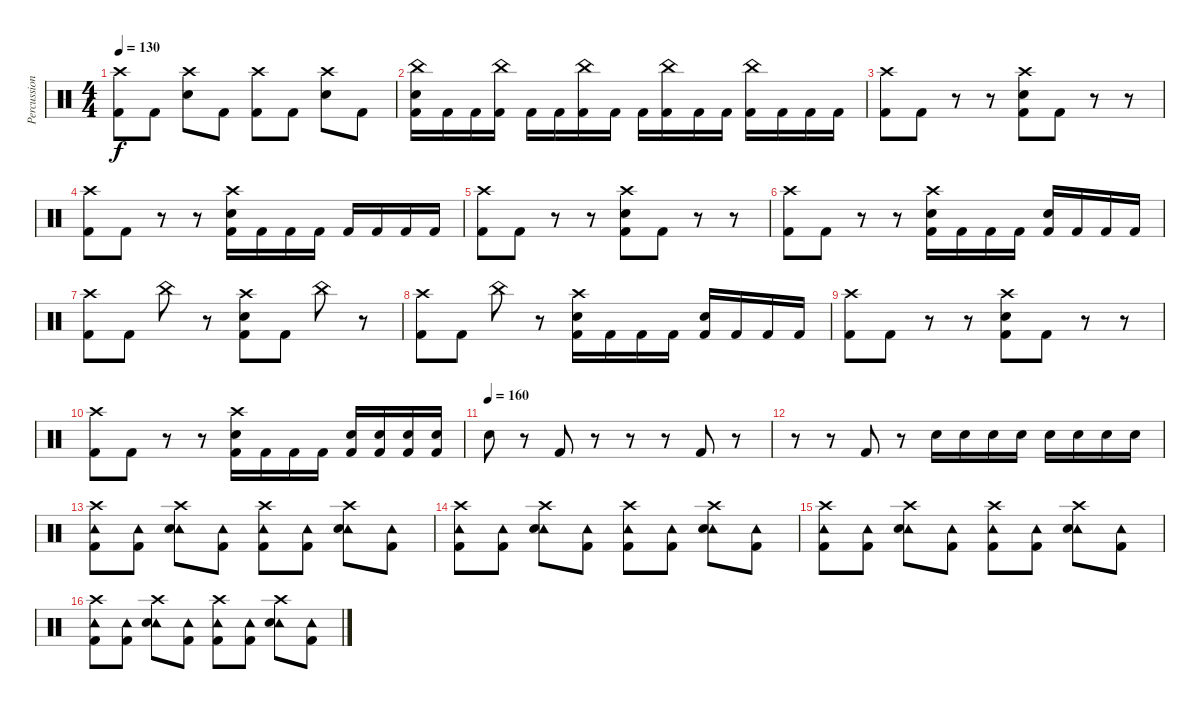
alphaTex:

\track ("Percussion" "Percussion") {instrument percussion}
\staff {score}
\articulation defaults
\ts (4 4)
\tempo 130
\clef neutral
\ks c
("Crash high (hit)" "Kick (hit) 2").8{dy f} "Kick (hit) 2".8 ("Crash high (hit)" "Snare (hit) 2").8 "Kick (hit) 2".8 ("Crash high (hit)" "Kick (hit) 2").8 "Kick (hit) 2".8 ("Crash high (hit)" "Snare (hit) 2").8 "Kick (hit) 2".8 |
("China (hit)" "Snare (hit) 2" "Kick (hit) 2").16 "Kick (hit) 2".16 "Kick (hit) 2".16 ("China (hit)" "Kick (hit) 2").16 "Kick (hit) 2".16 "Kick (hit) 2".16 ("China (hit)" "Kick (hit) 2").16 "Kick (hit) 2".16 "Kick (hit) 2".16 ("China (hit)" "Kick (hit) 2").16 "Kick (hit) 2".16 "Kick (hit) 2".16 ("China (hit)" "Kick (hit) 2").16 "Kick (hit) 2".16 "Kick (hit) 2".16 "Kick (hit) 2".16 |
("Crash high (hit)" "Kick (hit) 2").8 "Kick (hit) 2".8 r.8 r.8 ("Crash high (hit)" "Snare (hit) 2" "Kick (hit) 2").8 "Kick (hit) 2".8 r.8 r.8 |
("Crash high (hit)" "Kick (hit) 2").8 "Kick (hit) 2".8 r.8 r.8 ("Crash high (hit)" "Snare (hit) 2" "Kick (hit) 2").16 "Kick (hit) 2".16 "Kick (hit) 2".16 "Kick (hit) 2".16 "Kick (hit) 2".16 "Kick (hit) 2".16 "Kick (hit) 2".16 "Kick (hit) 2".16 |
("Crash high (hit)" "Kick (hit) 2").8 "Kick (hit) 2".8 r.8 r.8 ("Crash high (hit)" "Snare (hit) 2" "Kick (hit) 2").8 "Kick (hit) 2".8 r.8 r.8 |
("Crash high (hit)" "Kick (hit) 2").8 "Kick (hit) 2".8 r.8 r.8 ("Crash high (hit)" "Snare (hit) 2" "Kick (hit) 2").16 "Kick (hit) 2".16 "Kick (hit) 2".16 "Kick (hit) 2".16 ("Snare (hit) 2" "Kick (hit) 2").16 "Kick (hit) 2".16 "Kick (hit) 2".16 "Kick (hit) 2".16 |
("Crash high (hit)" "Kick (hit) 2").8 "Kick (hit) 2".8 "China (hit)".8 r.8 ("Crash high (hit)" "Snare (hit) 2" "Kick (hit) 2").8 "Kick (hit) 2".8 "China (hit)".8 r.8 |
("Crash high (hit)" "Kick (hit) 2").8 "Kick (hit) 2".8 "China (hit)".8 r.8 ("Crash high (hit)" "Snare (hit) 2" "Kick (hit) 2").16 "Kick (hit) 2".16 "Kick (hit) 2".16 "Kick (hit) 2".16 ("Snare (hit) 2" "Kick (hit) 2").16 "Kick (hit) 2".16 "Kick (hit) 2".16 "Kick (hit) 2".16 |
("Crash high (hit)" "Kick (hit) 2").8 "Kick (hit) 2".8 r.8 r.8 ("Crash high (hit)" "Snare (hit) 2" "Kick (hit) 2").8 "Kick (hit) 2".8 r.8 r.8 |
("Crash high (hit)" "Kick (hit) 2").8 "Kick (hit) 2".8 r.8 r.8 ("Crash high (hit)" "Snare (hit) 2" "Kick (hit) 2").16 "Kick (hit) 2".16 "Kick (hit) 2".16 "Kick (hit) 2".16 ("Snare (hit) 2" "Kick (hit) 2").16 ("Snare (hit) 2" "Kick (hit) 2").16 ("Snare (hit) 2" "Kick (hit) 2").16 ("Snare (hit) 2" "Kick (hit) 2").16 |
\tempo (160)
"Snare (hit) 2".8 r.8 "Kick (hit) 2".8 r.8 r.8 r.8 "Kick (hit) 2".8 r.8 |
r.8 r.8 "Kick (hit) 2".8 r.8 "Snare (hit) 2".16 "Snare (hit) 2".16 "Snare (hit) 2".16 "Snare (hit) 2".16 "Snare (hit) 2".16 "Snare (hit) 2".16 "Snare (hit) 2".16 "Snare (hit) 2".16 |
("Tambourine (hit)" "Crash high (hit)" "Kick (hit) 2").8 ("Tambourine (hit)" "Kick (hit) 2").8 ("Tambourine (hit)" "Crash high (hit)" "Snare (hit) 2").8 ("Tambourine (hit)" "Kick (hit) 2").8 ("Tambourine (hit)" "Crash high (hit)" "Kick (hit) 2").8 ("Tambourine (hit)" "Kick (hit) 2").8 ("Tambourine (hit)" "Crash high (hit)" "Snare (hit) 2").8 ("Tambourine (hit)" "Kick (hit) 2").8 |
("Tambourine (hit)" "Crash high (hit)" "Kick (hit) 2").8 ("Tambourine (hit)" "Kick (hit) 2").8 ("Tambourine (hit)" "Crash high (hit)" "Snare (hit) 2").8 ("Tambourine (hit)" "Kick (hit) 2").8 ("Tambourine (hit)" "Crash high (hit)" "Kick (hit) 2").8 ("Tambourine (hit)" "Kick (hit) 2").8 ("Tambourine (hit)" "Crash high (hit)" "Snare (hit) 2").8 ("Tambourine (hit)" "Kick (hit) 2").8 |
("Tambourine (hit)" "Crash high (hit)" "Kick (hit) 2").8 ("Tambourine (hit)" "Kick (hit) 2").8 ("Tambourine (hit)" "Crash high (hit)" "Snare (hit) 2").8 ("Tambourine (hit)" "Kick (hit) 2").8 ("Tambourine (hit)" "Crash high (hit)" "Kick (hit) 2").8 ("Tambourine (hit)" "Kick (hit) 2").8 ("Tambourine (hit)" "Crash high (hit)" "Snare (hit) 2").8 ("Tambourine (hit)" "Kick (hit) 2").8 |
("Tambourine (hit)" "Crash high (hit)" "Kick (hit) 2").8 ("Tambourine (hit)" "Kick (hit) 2").8 ("Tambourine (hit)" "Crash high (hit)" "Snare (hit) 2").8 ("Tambourine (hit)" "Kick (hit) 2").8 ("Tambourine (hit)" "Crash high (hit)" "Kick (hit) 2").8 ("Tambourine (hit)" "Kick (hit) 2").8 ("Tambourine (hit)" "Crash high (hit)" "Snare (hit) 2").8 ("Tambourine (hit)" "Kick (hit) 2").8
